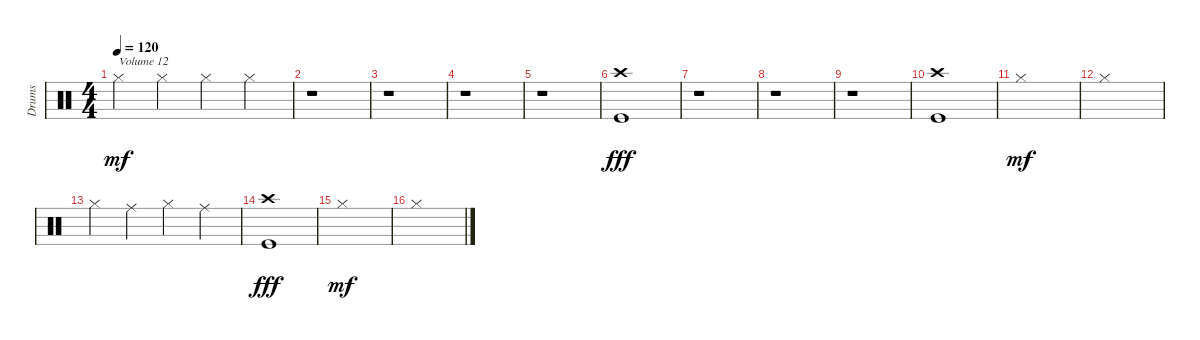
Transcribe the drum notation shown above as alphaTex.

\track ("Drums" "Drums") {instrument percussion}
\staff {score}
\articulation defaults
\ts (4 4)
\tempo 120
\clef neutral
\ks c "Hi-Hat (closed)".4{txt "Volume 12" dy mf volume 12} "Hi-Hat (closed)".4 "Hi-Hat (closed)".4 "Hi-Hat (closed)".4
|
r.1 |
r.1 |
r.1 |
r.1 |
("Crash high (hit)" "Kick (hit)").1{dy fff} |
r.1 |
r.1 |
r.1 |
("Crash high (hit)" "Kick (hit)").1 |
"Hi-Hat (closed)".1{dy mf} |
"Hi-Hat (closed)".1 |
"Hi-Hat (closed)".4 "Ride (middle)".4 "Hi-Hat (closed)".4 "Ride (middle)".4 |
("Crash high (hit)" "Kick (hit)").1{dy fff} |
"Hi-Hat (closed)".1{dy mf} |
"Hi-Hat (closed)".1
